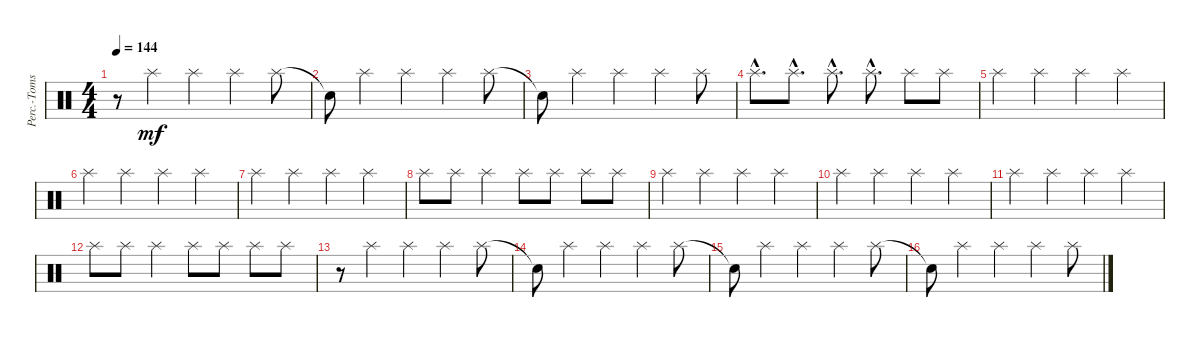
\track ("Perc.-Toms/Cym.2" "Perc.-Toms") {instrument percussion}
\staff {score}
\articulation defaults
\ts (4 4)
\tempo 144
\clef neutral
\ks c
r.8{dy mf} "Splash (hit)".4 "Splash (hit)".4 "Splash (hit)".4 "Splash (hit)".8 |
"Snare (hit)"{t}.8 "Splash (hit)".4 "Splash (hit)".4 "Splash (hit)".4 "Splash (hit)".8 |
"Snare (hit)"{t}.8 "Splash (hit)".4 "Splash (hit)".4 "Splash (hit)".4 "Splash (hit)".8 |
"Splash (hit)"{hac}.8{d} "Splash (hit)"{hac}.8{d} "Splash (hit)"{hac}.8{d} "Splash (hit)"{hac}.8{d} "Splash (hit)".8 "Splash (hit)".8 |
"Splash (hit)".4 "Splash (hit)".4 "Splash (hit)".4 "Splash (hit)".4 |
"Splash (hit)".4 "Splash (hit)".4 "Splash (hit)".4 "Splash (hit)".4 |
"Splash (hit)".4 "Splash (hit)".4 "Splash (hit)".4 "Splash (hit)".4 |
"Splash (hit)".8 "Splash (hit)".8 "Splash (hit)".4 "Splash (hit)".8 "Splash (hit)".8 "Splash (hit)".8 "Splash (hit)".8 |
"Splash (hit)".4 "Splash (hit)".4 "Splash (hit)".4 "Splash (hit)".4 |
"Splash (hit)".4 "Splash (hit)".4 "Splash (hit)".4 "Splash (hit)".4 |
"Splash (hit)".4 "Splash (hit)".4 "Splash (hit)".4 "Splash (hit)".4 |
"Splash (hit)".8 "Splash (hit)".8 "Splash (hit)".4 "Splash (hit)".8 "Splash (hit)".8 "Splash (hit)".8 "Splash (hit)".8 |
r.8 "Splash (hit)".4 "Splash (hit)".4 "Splash (hit)".4 "Splash (hit)".8 |
"Snare (hit)"{t}.8 "Splash (hit)".4 "Splash (hit)".4 "Splash (hit)".4 "Splash (hit)".8 |
"Snare (hit)"{t}.8 "Splash (hit)".4 "Splash (hit)".4 "Splash (hit)".4 "Splash (hit)".8 |
"Snare (hit)"{t}.8 "Splash (hit)".4 "Splash (hit)".4 "Splash (hit)".4 "Splash (hit)".8
